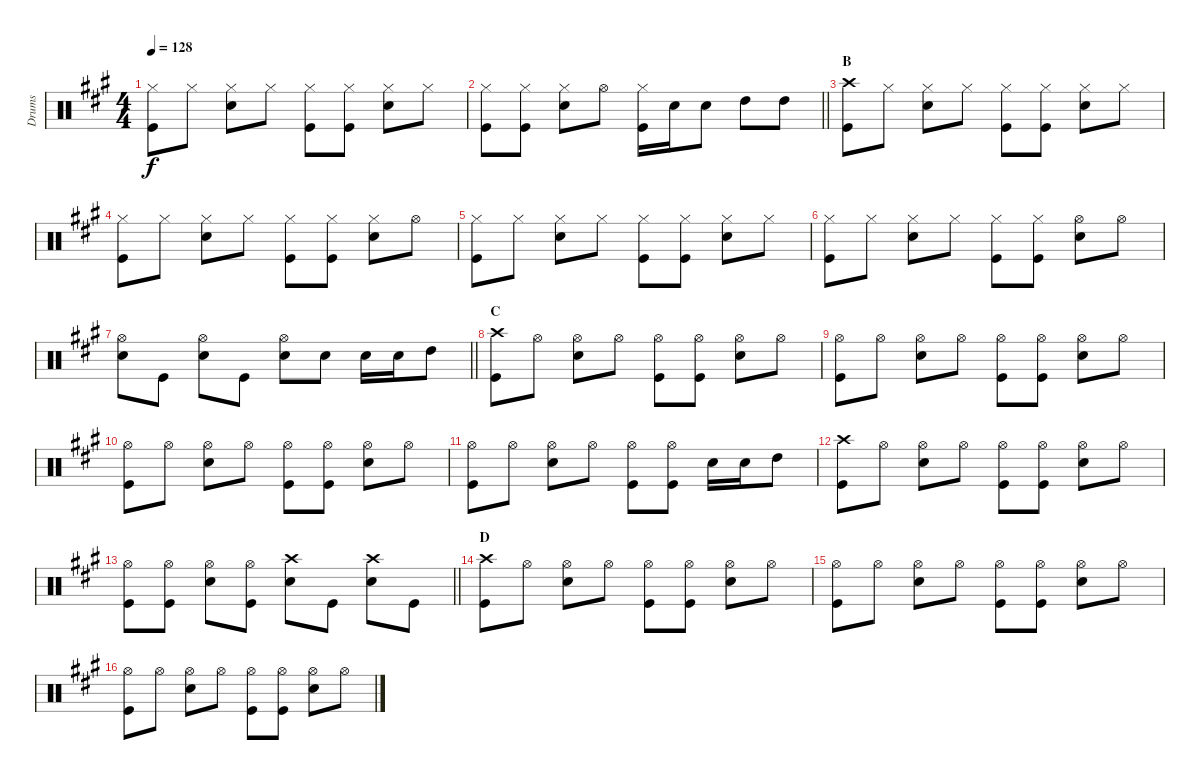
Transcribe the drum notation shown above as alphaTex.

\track ("Drums" "Drums") {instrument percussion}
\staff {score}
\articulation defaults
\ts (4 4)
\tempo 128
\clef neutral
\ks a
("Hi-Hat (closed)" "Kick (hit)").8{dy f} "Hi-Hat (closed)".8 ("Hi-Hat (closed)" "Snare (hit) 2").8 "Hi-Hat (closed)".8 ("Hi-Hat (closed)" "Kick (hit)").8 ("Hi-Hat (closed)" "Kick (hit)").8 ("Hi-Hat (closed)" "Snare (hit) 2").8 "Hi-Hat (closed)".8 |
\barLineRight lightlight
("Hi-Hat (closed)" "Kick (hit)").8 ("Hi-Hat (closed)" "Kick (hit)").8 ("Hi-Hat (closed)" "Snare (hit) 2").8 "Hi-Hat (open)".8 ("Hi-Hat (closed)" "Kick (hit)").16 "Snare (hit) 2".16 "Snare (hit) 2".8 "High Tom (hit)".8 "High Tom (hit)".8 |
\section ("" "B")
("Crash high (hit)" "Kick (hit)").8 "Hi-Hat (closed)".8 ("Hi-Hat (closed)" "Snare (hit) 2").8 "Hi-Hat (closed)".8 ("Hi-Hat (closed)" "Kick (hit)").8 ("Hi-Hat (closed)" "Kick (hit)").8 ("Hi-Hat (closed)" "Snare (hit) 2").8 "Hi-Hat (closed)".8 |
("Hi-Hat (closed)" "Kick (hit)").8 "Hi-Hat (closed)".8 ("Hi-Hat (closed)" "Snare (hit) 2").8 "Hi-Hat (closed)".8 ("Hi-Hat (closed)" "Kick (hit)").8 ("Hi-Hat (closed)" "Kick (hit)").8 ("Hi-Hat (closed)" "Snare (hit) 2").8 "Hi-Hat (open)".8 |
("Hi-Hat (closed)" "Kick (hit)").8 "Hi-Hat (closed)".8 ("Hi-Hat (closed)" "Snare (hit) 2").8 "Hi-Hat (closed)".8 ("Hi-Hat (closed)" "Kick (hit)").8 ("Hi-Hat (closed)" "Kick (hit)").8 ("Hi-Hat (closed)" "Snare (hit) 2").8 "Hi-Hat (closed)".8 |
("Hi-Hat (closed)" "Kick (hit)").8 "Hi-Hat (closed)".8 ("Hi-Hat (closed)" "Snare (hit) 2").8 "Hi-Hat (closed)".8 ("Hi-Hat (closed)" "Kick (hit)").8 ("Hi-Hat (closed)" "Kick (hit)").8 ("Hi-Hat (open)" "Snare (hit) 2").8 "Hi-Hat (open)".8 |
\barLineRight lightlight
("Hi-Hat (open)" "Snare (hit) 2").8 "Kick (hit)".8 ("Hi-Hat (open)" "Snare (hit) 2").8 "Kick (hit)".8 ("Hi-Hat (open)" "Snare (hit) 2").8 "Snare (hit) 2".8 "Snare (hit) 2".16 "Snare (hit) 2".16 "High Tom (hit)".8 |
\section ("" "C")
("Crash high (hit)" "Kick (hit)").8 "Hi-Hat (open)".8 ("Hi-Hat (open)" "Snare (hit) 2").8 "Hi-Hat (open)".8 ("Hi-Hat (open)" "Kick (hit)").8 ("Hi-Hat (open)" "Kick (hit)").8 ("Hi-Hat (open)" "Snare (hit) 2").8 "Hi-Hat (open)".8 |
("Hi-Hat (open)" "Kick (hit)").8 "Hi-Hat (open)".8 ("Hi-Hat (open)" "Snare (hit) 2").8 "Hi-Hat (open)".8 ("Hi-Hat (open)" "Kick (hit)").8 ("Hi-Hat (open)" "Kick (hit)").8 ("Hi-Hat (open)" "Snare (hit) 2").8 "Hi-Hat (open)".8 |
("Hi-Hat (open)" "Kick (hit)").8 "Hi-Hat (open)".8 ("Hi-Hat (open)" "Snare (hit) 2").8 "Hi-Hat (open)".8 ("Hi-Hat (open)" "Kick (hit)").8 ("Hi-Hat (open)" "Kick (hit)").8 ("Hi-Hat (open)" "Snare (hit) 2").8 "Hi-Hat (open)".8 |
("Hi-Hat (open)" "Kick (hit)").8 "Hi-Hat (open)".8 ("Hi-Hat (open)" "Snare (hit) 2").8 "Hi-Hat (open)".8 ("Hi-Hat (open)" "Kick (hit)").8 ("Hi-Hat (open)" "Kick (hit)").8 "Snare (hit) 2".16 "Snare (hit) 2".16 "High Tom (hit)".8 |
("Crash high (hit)" "Kick (hit)").8 "Hi-Hat (open)".8 ("Hi-Hat (open)" "Snare (hit) 2").8 "Hi-Hat (open)".8 ("Hi-Hat (open)" "Kick (hit)").8 ("Hi-Hat (open)" "Kick (hit)").8 ("Hi-Hat (open)" "Snare (hit) 2").8 "Hi-Hat (open)".8 |
\barLineRight lightlight
("Hi-Hat (open)" "Kick (hit)").8 ("Hi-Hat (open)" "Kick (hit)").8 ("Hi-Hat (open)" "Snare (hit) 2").8 ("Hi-Hat (open)" "Kick (hit)").8 ("Crash high (hit)" "Snare (hit) 2").8 "Kick (hit)".8 ("Crash high (hit)" "Snare (hit) 2").8 "Kick (hit)".8 |
\section ("" "D")
("Crash high (hit)" "Kick (hit)").8 "Hi-Hat (open)".8 ("Hi-Hat (open)" "Snare (hit) 2").8 "Hi-Hat (open)".8 ("Hi-Hat (open)" "Kick (hit)").8 ("Hi-Hat (open)" "Kick (hit)").8 ("Hi-Hat (open)" "Snare (hit) 2").8 "Hi-Hat (open)".8 |
("Hi-Hat (open)" "Kick (hit)").8 "Hi-Hat (open)".8 ("Hi-Hat (open)" "Snare (hit) 2").8 "Hi-Hat (open)".8 ("Hi-Hat (open)" "Kick (hit)").8 ("Hi-Hat (open)" "Kick (hit)").8 ("Hi-Hat (open)" "Snare (hit) 2").8 "Hi-Hat (open)".8 |
("Hi-Hat (open)" "Kick (hit)").8 "Hi-Hat (open)".8 ("Hi-Hat (open)" "Snare (hit) 2").8 "Hi-Hat (open)".8 ("Hi-Hat (open)" "Kick (hit)").8 ("Hi-Hat (open)" "Kick (hit)").8 ("Hi-Hat (open)" "Snare (hit) 2").8 "Hi-Hat (open)".8
